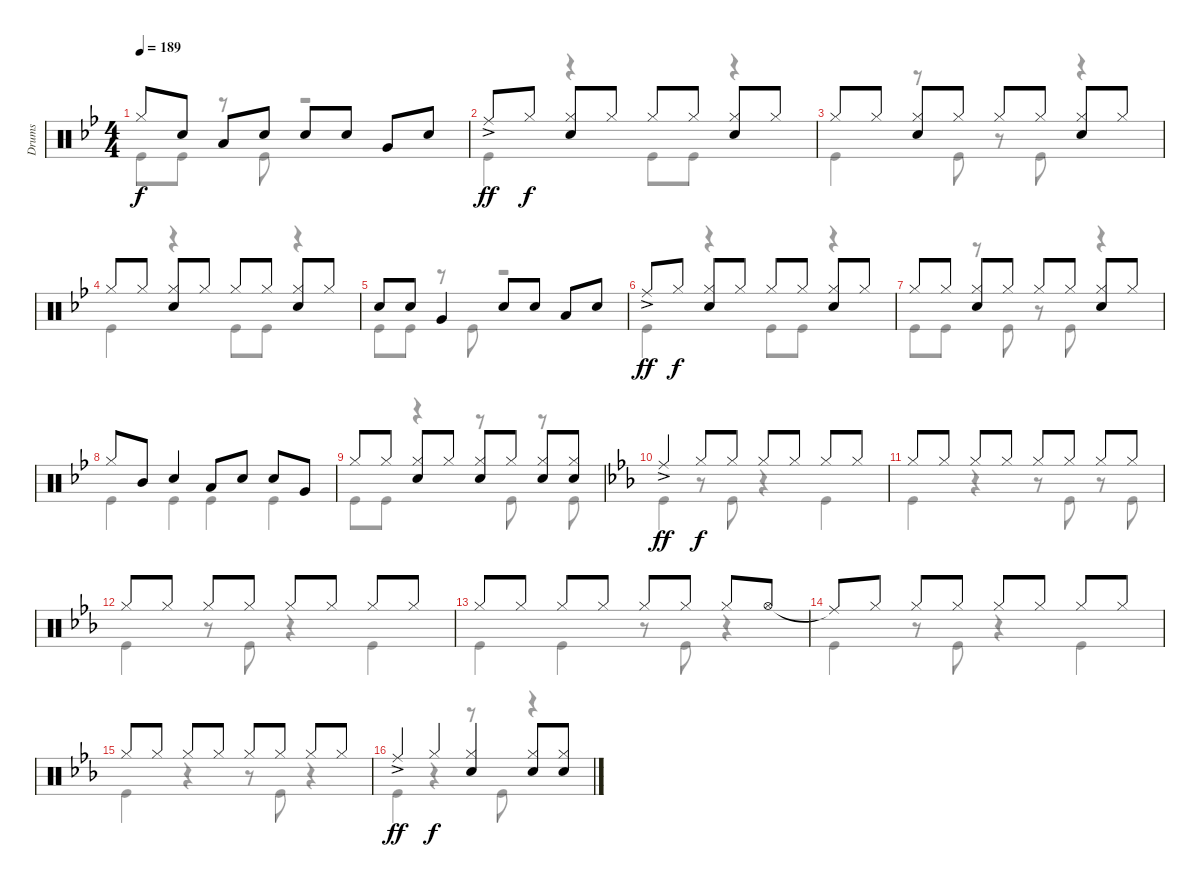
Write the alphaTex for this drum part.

\track ("Drums" "Drums") {instrument percussion}
\staff {score}
\articulation defaults
\voice
\ts (4 4)
\tempo 189
\clef neutral
\ks bb "Hi-Hat (closed)".8{dy f} "Snare (hit) 2".8 "Low Tom (hit)".8 "Snare (hit) 2".8 "Snare (hit) 2".8 "Snare (hit) 2".8 "Very Low Tom (hit)".8 "Snare (hit) 2".8
|
"Ride (middle)"{ac}.8{dy ff} "Hi-Hat (closed)".8{dy f} ("Hi-Hat (closed)" "Snare (hit) 2").8 "Hi-Hat (closed)".8 "Hi-Hat (closed)".8 "Hi-Hat (closed)".8 ("Hi-Hat (closed)" "Snare (hit) 2").8 "Hi-Hat (closed)".8 |
"Hi-Hat (closed)".8 "Hi-Hat (closed)".8 ("Hi-Hat (closed)" "Snare (hit) 2").8 "Hi-Hat (closed)".8 "Hi-Hat (closed)".8 "Hi-Hat (closed)".8 ("Hi-Hat (closed)" "Snare (hit) 2").8 "Hi-Hat (closed)".8 |
"Hi-Hat (closed)".8 "Hi-Hat (closed)".8 ("Hi-Hat (closed)" "Snare (hit) 2").8 "Hi-Hat (closed)".8 "Hi-Hat (closed)".8 "Hi-Hat (closed)".8 ("Hi-Hat (closed)" "Snare (hit) 2").8 "Hi-Hat (closed)".8 |
"Snare (hit) 2".8 "Snare (hit) 2".8 "Very Low Tom (hit)".4 "Snare (hit) 2".8 "Snare (hit) 2".8 "Low Tom (hit)".8 "Snare (hit) 2".8 |
"Ride (middle)"{ac}.8{dy ff} "Hi-Hat (closed)".8{dy f} ("Hi-Hat (closed)" "Snare (hit) 2").8 "Hi-Hat (closed)".8 "Hi-Hat (closed)".8 "Hi-Hat (closed)".8 ("Hi-Hat (closed)" "Snare (hit) 2").8 "Hi-Hat (closed)".8 |
"Hi-Hat (closed)".8 "Hi-Hat (closed)".8 ("Hi-Hat (closed)" "Snare (hit) 2").8 "Hi-Hat (closed)".8 "Hi-Hat (closed)".8 "Hi-Hat (closed)".8 ("Hi-Hat (closed)" "Snare (hit) 2").8 "Hi-Hat (closed)".8 |
"Hi-Hat (closed)".8 "Mid Tom (hit)".8 "Snare (hit) 2".4 "Low Tom (hit)".8 "Snare (hit) 2".8 "Snare (hit) 2".8 "Very Low Tom (hit)".8 |
"Hi-Hat (closed)".8 "Hi-Hat (closed)".8 ("Hi-Hat (closed)" "Snare (hit) 2").8 "Hi-Hat (closed)".8 ("Hi-Hat (closed)" "Snare (hit) 2").8 "Hi-Hat (closed)".8 ("Hi-Hat (closed)" "Snare (hit) 2").8 ("Hi-Hat (closed)" "Snare (hit) 2").8 |
\ks eb "Ride (middle)"{ac}.4{dy ff} "Hi-Hat (closed)".8{dy f} "Hi-Hat (closed)".8 "Hi-Hat (closed)".8 "Hi-Hat (closed)".8 "Hi-Hat (closed)".8 "Hi-Hat (closed)".8
|
"Hi-Hat (closed)".8 "Hi-Hat (closed)".8 "Hi-Hat (closed)".8 "Hi-Hat (closed)".8 "Hi-Hat (closed)".8 "Hi-Hat (closed)".8 "Hi-Hat (closed)".8 "Hi-Hat (closed)".8 |
"Hi-Hat (closed)".8 "Hi-Hat (closed)".8 "Hi-Hat (closed)".8 "Hi-Hat (closed)".8 "Hi-Hat (closed)".8 "Hi-Hat (closed)".8 "Hi-Hat (closed)".8 "Hi-Hat (closed)".8 |
"Hi-Hat (closed)".8 "Hi-Hat (closed)".8 "Hi-Hat (closed)".8 "Hi-Hat (closed)".8 "Hi-Hat (closed)".8 "Hi-Hat (closed)".8 "Hi-Hat (closed)".8 "Hi-Hat (open)".8 |
"Ride (middle)"{t}.8 "Hi-Hat (closed)".8 "Hi-Hat (closed)".8 "Hi-Hat (closed)".8 "Hi-Hat (closed)".8 "Hi-Hat (closed)".8 "Hi-Hat (closed)".8 "Hi-Hat (closed)".8 |
"Hi-Hat (closed)".8 "Hi-Hat (closed)".8 "Hi-Hat (closed)".8 "Hi-Hat (closed)".8 "Hi-Hat (closed)".8 "Hi-Hat (closed)".8 "Hi-Hat (closed)".8 "Hi-Hat (closed)".8 |
"Ride (middle)"{ac}.4{dy ff} "Hi-Hat (closed)".4{dy f} ("Hi-Hat (closed)" "Snare (hit) 2").4 ("Hi-Hat (closed)" "Snare (hit) 2").8 ("Hi-Hat (closed)" "Snare (hit) 2").8
\voice
\clef neutral
\ottava regular
\simile none
\ks bb "Kick (hit)".8{dy f} "Kick (hit)".8
r.8 "Kick (hit)".8 r.2 |
"Kick (hit)".4 r.4 "Kick (hit)".8 "Kick (hit)".8 r.4 |
"Kick (hit)".4 r.8 "Kick (hit)".8 r.8 "Kick (hit)".8 r.4 |
"Kick (hit)".4 r.4 "Kick (hit)".8 "Kick (hit)".8 r.4 |
"Kick (hit)".8 "Kick (hit)".8 r.8 "Kick (hit)".8 r.2 |
"Kick (hit)".4 r.4 "Kick (hit)".8 "Kick (hit)".8 r.4 |
"Kick (hit)".8 "Kick (hit)".8 r.8 "Kick (hit)".8 r.8 "Kick (hit)".8 r.4 |
"Kick (hit)".4 "Kick (hit)".4 "Kick (hit)".4 "Kick (hit)".4 |
"Kick (hit)".8 "Kick (hit)".8 r.4 r.8 "Kick (hit)".8 r.8 "Kick (hit)".8 |
\ks eb "Kick (hit)".4
r.8 "Kick (hit)".8 r.4 "Kick (hit)".4 |
"Kick (hit)".4 r.4 r.8 "Kick (hit)".8 r.8 "Kick (hit)".8 |
"Kick (hit)".4 r.8 "Kick (hit)".8 r.4 "Kick (hit)".4 |
"Kick (hit)".4 "Kick (hit)".4 r.8 "Kick (hit)".8 r.4 |
"Kick (hit)".4 r.8 "Kick (hit)".8 r.4 "Kick (hit)".4 |
"Kick (hit)".4 r.4 r.8 "Kick (hit)".8 r.4 |
"Kick (hit)".4 r.4 r.8 "Kick (hit)".8 r.4
